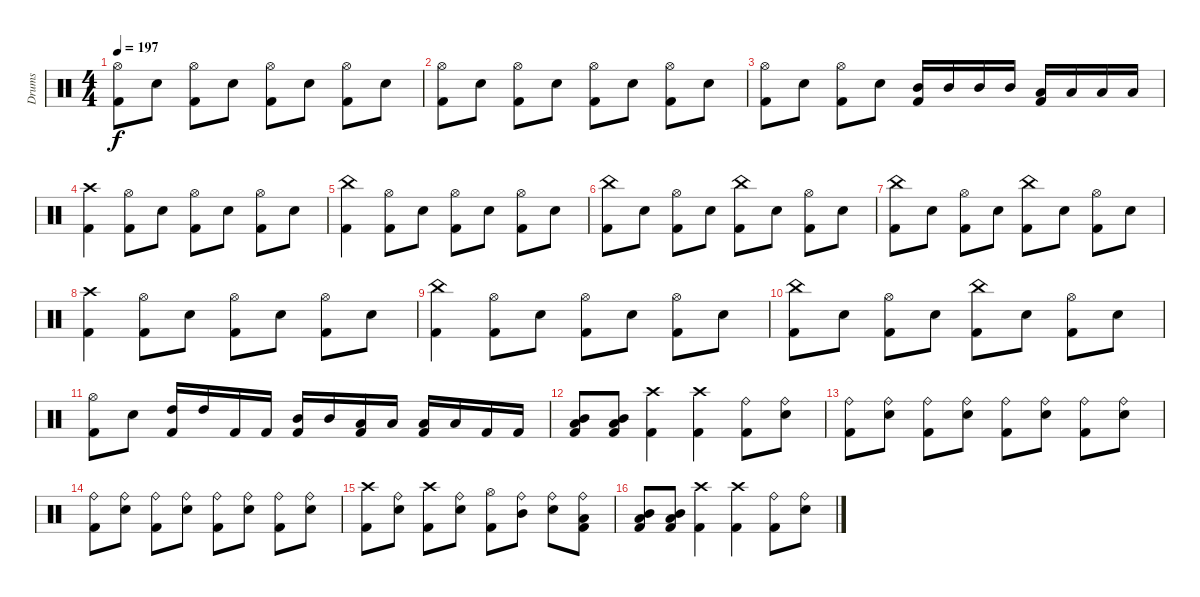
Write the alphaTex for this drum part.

\track ("Drums" "Drums") {instrument percussion}
\staff {score}
\articulation defaults
\ts (4 4)
\tempo 197
\clef neutral
\ks c
("Hi-Hat (open)" "Kick (hit) 2").8{dy f} "Electric Snare (hit)".8 ("Hi-Hat (open)" "Kick (hit) 2").8 "Electric Snare (hit)".8 ("Hi-Hat (open)" "Kick (hit) 2").8 "Electric Snare (hit)".8 ("Hi-Hat (open)" "Kick (hit) 2").8 "Electric Snare (hit)".8 |
("Hi-Hat (open)" "Kick (hit) 2").8 "Electric Snare (hit)".8 ("Hi-Hat (open)" "Kick (hit) 2").8 "Electric Snare (hit)".8 ("Hi-Hat (open)" "Kick (hit) 2").8 "Electric Snare (hit)".8 ("Hi-Hat (open)" "Kick (hit) 2").8 "Electric Snare (hit)".8 |
("Hi-Hat (open)" "Kick (hit) 2").8 "Electric Snare (hit)".8 ("Hi-Hat (open)" "Kick (hit) 2").8 "Electric Snare (hit)".8 ("Mid Tom (hit)" "Kick (hit) 2").16 "Mid Tom (hit)".16 "Mid Tom (hit)".16 "Mid Tom (hit)".16 ("Low Tom (hit)" "Kick (hit) 2").16 "Low Tom (hit)".16 "Low Tom (hit)".16 "Low Tom (hit)".16 |
("Crash high (hit)" "Kick (hit) 2").4 ("Hi-Hat (open)" "Kick (hit) 2").8 "Electric Snare (hit)".8 ("Hi-Hat (open)" "Kick (hit) 2").8 "Electric Snare (hit)".8 ("Hi-Hat (open)" "Kick (hit) 2").8 "Electric Snare (hit)".8 |
("China (hit)" "Kick (hit) 2").4 ("Hi-Hat (open)" "Kick (hit) 2").8 "Electric Snare (hit)".8 ("Hi-Hat (open)" "Kick (hit) 2").8 "Electric Snare (hit)".8 ("Hi-Hat (open)" "Kick (hit) 2").8 "Electric Snare (hit)".8 |
("China (hit)" "Kick (hit) 2").8 "Electric Snare (hit)".8 ("Hi-Hat (open)" "Kick (hit) 2").8 "Electric Snare (hit)".8 ("China (hit)" "Kick (hit) 2").8 "Electric Snare (hit)".8 ("Hi-Hat (open)" "Kick (hit) 2").8 "Electric Snare (hit)".8 |
("China (hit)" "Kick (hit) 2").8 "Electric Snare (hit)".8 ("Hi-Hat (open)" "Kick (hit) 2").8 "Electric Snare (hit)".8 ("China (hit)" "Kick (hit) 2").8 "Electric Snare (hit)".8 ("Hi-Hat (open)" "Kick (hit) 2").8 "Electric Snare (hit)".8 |
("Crash high (hit)" "Kick (hit) 2").4 ("Hi-Hat (open)" "Kick (hit) 2").8 "Electric Snare (hit)".8 ("Hi-Hat (open)" "Kick (hit) 2").8 "Electric Snare (hit)".8 ("Hi-Hat (open)" "Kick (hit) 2").8 "Electric Snare (hit)".8 |
("China (hit)" "Kick (hit) 2").4 ("Hi-Hat (open)" "Kick (hit) 2").8 "Electric Snare (hit)".8 ("Hi-Hat (open)" "Kick (hit) 2").8 "Electric Snare (hit)".8 ("Hi-Hat (open)" "Kick (hit) 2").8 "Electric Snare (hit)".8 |
("China (hit)" "Kick (hit) 2").8 "Electric Snare (hit)".8 ("Hi-Hat (open)" "Kick (hit) 2").8 "Electric Snare (hit)".8 ("China (hit)" "Kick (hit) 2").8 "Electric Snare (hit)".8 ("Hi-Hat (open)" "Kick (hit) 2").8 "Electric Snare (hit)".8 |
("Hi-Hat (open)" "Kick (hit) 2").8 "Electric Snare (hit)".8 ("High Tom (hit)" "Kick (hit) 2").16 "High Tom (hit)".16 "Kick (hit) 2".16 "Kick (hit) 2".16 ("Mid Tom (hit)" "Kick (hit) 2").16 "Mid Tom (hit)".16 ("Low Tom (hit)" "Kick (hit) 2").16 "Low Tom (hit)".16 ("Low Tom (hit)" "Kick (hit) 2").16 "Low Tom (hit)".16 "Kick (hit) 2".16 "Kick (hit) 2".16 |
("Mid Tom (hit)" "Low Tom (hit)" "Kick (hit) 2").8 ("Mid Tom (hit)" "Low Tom (hit)" "Kick (hit) 2").8 ("Crash high (hit)" "Kick (hit) 2").4 ("Crash high (hit)" "Kick (hit) 2").4 ("Ride (bell)" "Kick (hit) 2").8 ("Ride (bell)" "Electric Snare (hit)").8 |
("Ride (bell)" "Kick (hit) 2").8 ("Ride (bell)" "Electric Snare (hit)").8 ("Ride (bell)" "Kick (hit) 2").8 ("Ride (bell)" "Electric Snare (hit)").8 ("Ride (bell)" "Kick (hit) 2").8 ("Ride (bell)" "Electric Snare (hit)").8 ("Ride (bell)" "Kick (hit) 2").8 ("Ride (bell)" "Electric Snare (hit)").8 |
("Ride (bell)" "Kick (hit) 2").8 ("Ride (bell)" "Electric Snare (hit)").8 ("Ride (bell)" "Kick (hit) 2").8 ("Ride (bell)" "Electric Snare (hit)").8 ("Ride (bell)" "Kick (hit) 2").8 ("Ride (bell)" "Electric Snare (hit)").8 ("Ride (bell)" "Kick (hit) 2").8 ("Ride (bell)" "Electric Snare (hit)").8 |
("Crash high (hit)" "Kick (hit) 2").8 ("Ride (bell)" "Electric Snare (hit)").8 ("Crash high (hit)" "Kick (hit) 2").8 ("Ride (bell)" "Electric Snare (hit)").8 ("Hi-Hat (open)" "Kick (hit) 2").8 ("Ride (bell)" "Mid Tom (hit)").8 ("Ride (bell)" "Electric Snare (hit)").8 ("Ride (bell)" "Low Tom (hit)" "Kick (hit) 2").8 |
("Mid Tom (hit)" "Low Tom (hit)" "Kick (hit) 2").8 ("Mid Tom (hit)" "Low Tom (hit)" "Kick (hit) 2").8 ("Crash high (hit)" "Kick (hit) 2").4 ("Crash high (hit)" "Kick (hit) 2").4 ("Ride (bell)" "Kick (hit) 2").8 ("Ride (bell)" "Electric Snare (hit)").8
